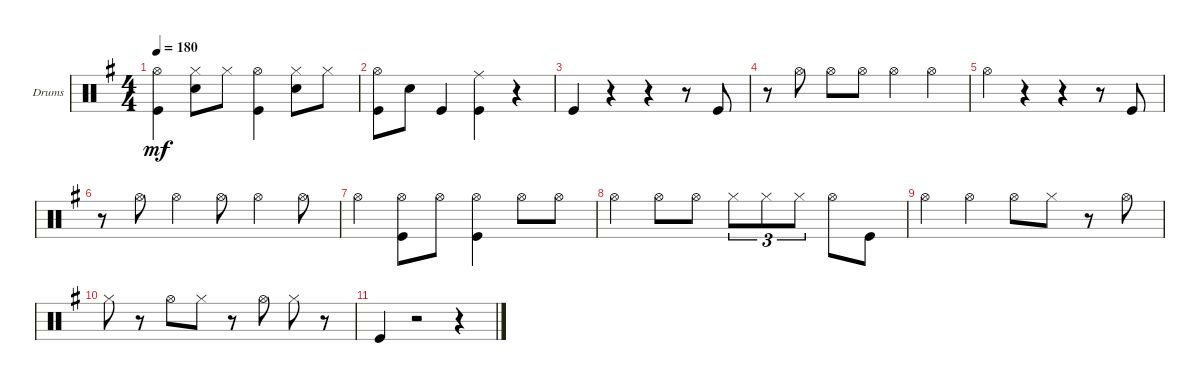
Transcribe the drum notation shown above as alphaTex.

\defaultSystemsLayout 4
\bracketExtendMode groupsimilarinstruments
\firstSystemTrackNameOrientation horizontal
\otherSystemsTrackNameOrientation horizontal
\track ("Drumkit" "Drums") {instrument percussion}
\staff {score}
\articulation defaults
\ts (4 4)
\tempo 180
\clef neutral
\ks g
("Hi-Hat (open)" "Kick (hit)").4{dy mf} ("Snare (hit) 2" "Hi-Hat (closed)").8 "Hi-Hat (closed)".8 ("Hi-Hat (open)" "Kick (hit)").4 ("Snare (hit) 2" "Hi-Hat (closed)").8 "Hi-Hat (closed)".8 |
("Hi-Hat (open)" "Kick (hit)").8 "Snare (hit) 2".8 "Kick (hit)".4 ("Kick (hit)" "Ride (middle)").4 r.4 |
"Kick (hit)".4 r.4 r.4 r.8 "Kick (hit)".8 |
r.8 "Hi-Hat (open)".8 "Hi-Hat (open)".8 "Hi-Hat (open)".8 "Hi-Hat (open)".4 "Hi-Hat (open)".4 |
"Hi-Hat (open)".4 r.4 r.4 r.8 "Kick (hit)".8 |
r.8 "Hi-Hat (open)".8 "Hi-Hat (open)".4 "Hi-Hat (open)".8 "Hi-Hat (open)".4 "Hi-Hat (open)".8 |
"Hi-Hat (open)".4 ("Hi-Hat (open)" "Kick (hit)").8 "Hi-Hat (open)".8 ("Hi-Hat (open)" "Kick (hit)").4 "Hi-Hat (open)".8 "Hi-Hat (open)".8 |
"Hi-Hat (open)".4 "Hi-Hat (open)".8 "Hi-Hat (open)".8 "Hi-Hat (closed)".8{tu (3 2)} "Hi-Hat (closed)".8{tu (3 2)} "Hi-Hat (closed)".8{tu (3 2)} "Hi-Hat (open)".8 "Kick (hit)".8 |
"Hi-Hat (open)".4 "Hi-Hat (open)".4 "Hi-Hat (open)".8 "Hi-Hat (closed)".8 r.8 "Hi-Hat (open)".8 |
"Hi-Hat (closed)".8 r.8 "Hi-Hat (open)".8 "Hi-Hat (closed)".8 r.8 "Hi-Hat (open)".8 "Hi-Hat (closed)".8 r.8 |
"Kick (hit)".4 r.2 r.4
